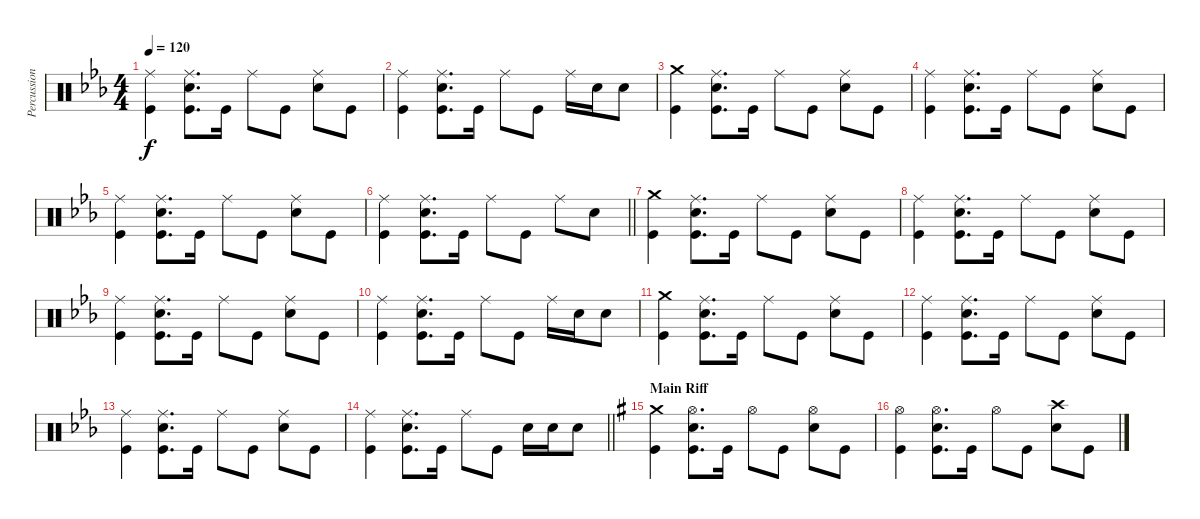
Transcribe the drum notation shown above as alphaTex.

\track ("Percussion" "Percussion") {instrument percussion}
\staff {score}
\articulation defaults
\ts (4 4)
\tempo 120
\clef neutral
\ks eb
("Ride (middle)" "Kick (hit)").4{dy f} ("Ride (middle)" "Electric Snare (hit)" "Kick (hit)").8{d} "Kick (hit)".16 "Ride (middle)".8 "Kick (hit)".8 ("Ride (middle)" "Electric Snare (hit)").8 "Kick (hit)".8 |
("Ride (middle)" "Kick (hit)").4 ("Ride (middle)" "Electric Snare (hit)" "Kick (hit)").8{d} "Kick (hit)".16 "Ride (middle)".8 "Kick (hit)".8 "Ride (middle)".16 "Electric Snare (hit)".16 "Electric Snare (hit)".8 |
("Crash medium (hit)" "Kick (hit)").4 ("Ride (middle)" "Electric Snare (hit)" "Kick (hit)").8{d} "Kick (hit)".16 "Ride (middle)".8 "Kick (hit)".8 ("Ride (middle)" "Electric Snare (hit)").8 "Kick (hit)".8 |
("Ride (middle)" "Kick (hit)").4 ("Ride (middle)" "Electric Snare (hit)" "Kick (hit)").8{d} "Kick (hit)".16 "Ride (middle)".8 "Kick (hit)".8 ("Ride (middle)" "Electric Snare (hit)").8 "Kick (hit)".8 |
("Ride (middle)" "Kick (hit)").4 ("Ride (middle)" "Electric Snare (hit)" "Kick (hit)").8{d} "Kick (hit)".16 "Ride (middle)".8 "Kick (hit)".8 ("Ride (middle)" "Electric Snare (hit)").8 "Kick (hit)".8 |
\barLineRight lightlight
("Ride (middle)" "Kick (hit)").4 ("Ride (middle)" "Electric Snare (hit)" "Kick (hit)").8{d} "Kick (hit)".16 "Ride (middle)".8 "Kick (hit)".8 "Ride (middle)".8 "Electric Snare (hit)".8 |
("Crash medium (hit)" "Kick (hit)").4 ("Ride (middle)" "Electric Snare (hit)" "Kick (hit)").8{d} "Kick (hit)".16 "Ride (middle)".8 "Kick (hit)".8 ("Ride (middle)" "Electric Snare (hit)").8 "Kick (hit)".8 |
("Ride (middle)" "Kick (hit)").4 ("Ride (middle)" "Electric Snare (hit)" "Kick (hit)").8{d} "Kick (hit)".16 "Ride (middle)".8 "Kick (hit)".8 ("Ride (middle)" "Electric Snare (hit)").8 "Kick (hit)".8 |
("Ride (middle)" "Kick (hit)").4 ("Ride (middle)" "Electric Snare (hit)" "Kick (hit)").8{d} "Kick (hit)".16 "Ride (middle)".8 "Kick (hit)".8 ("Ride (middle)" "Electric Snare (hit)").8 "Kick (hit)".8 |
("Ride (middle)" "Kick (hit)").4 ("Ride (middle)" "Electric Snare (hit)" "Kick (hit)").8{d} "Kick (hit)".16 "Ride (middle)".8 "Kick (hit)".8 "Ride (middle)".16 "Electric Snare (hit)".16 "Electric Snare (hit)".8 |
("Crash medium (hit)" "Kick (hit)").4 ("Ride (middle)" "Electric Snare (hit)" "Kick (hit)").8{d} "Kick (hit)".16 "Ride (middle)".8 "Kick (hit)".8 ("Ride (middle)" "Electric Snare (hit)").8 "Kick (hit)".8 |
("Ride (middle)" "Kick (hit)").4 ("Ride (middle)" "Electric Snare (hit)" "Kick (hit)").8{d} "Kick (hit)".16 "Ride (middle)".8 "Kick (hit)".8 ("Ride (middle)" "Electric Snare (hit)").8 "Kick (hit)".8 |
("Ride (middle)" "Kick (hit)").4 ("Ride (middle)" "Electric Snare (hit)" "Kick (hit)").8{d} "Kick (hit)".16 "Ride (middle)".8 "Kick (hit)".8 ("Ride (middle)" "Electric Snare (hit)").8 "Kick (hit)".8 |
\barLineRight lightlight
("Ride (middle)" "Kick (hit)").4 ("Ride (middle)" "Electric Snare (hit)" "Kick (hit)").8{d} "Kick (hit)".16 "Ride (middle)".8 "Kick (hit)".8 "Electric Snare (hit)".16 "Electric Snare (hit)".16 "Electric Snare (hit)".8 |
\section ("" "Main Riff")
\ks g
("Crash medium (hit)" "Kick (hit)").4 ("Hi-Hat (open)" "Electric Snare (hit)" "Kick (hit)").8{d} "Kick (hit)".16 "Hi-Hat (open)".8 "Kick (hit)".8 ("Hi-Hat (open)" "Electric Snare (hit)").8 "Kick (hit)".8 |
("Hi-Hat (open)" "Kick (hit)").4 ("Hi-Hat (open)" "Electric Snare (hit)" "Kick (hit)").8{d} "Kick (hit)".16 "Hi-Hat (open)".8 "Kick (hit)".8 ("Crash high (hit)" "Electric Snare (hit)").8 "Kick (hit)".8
